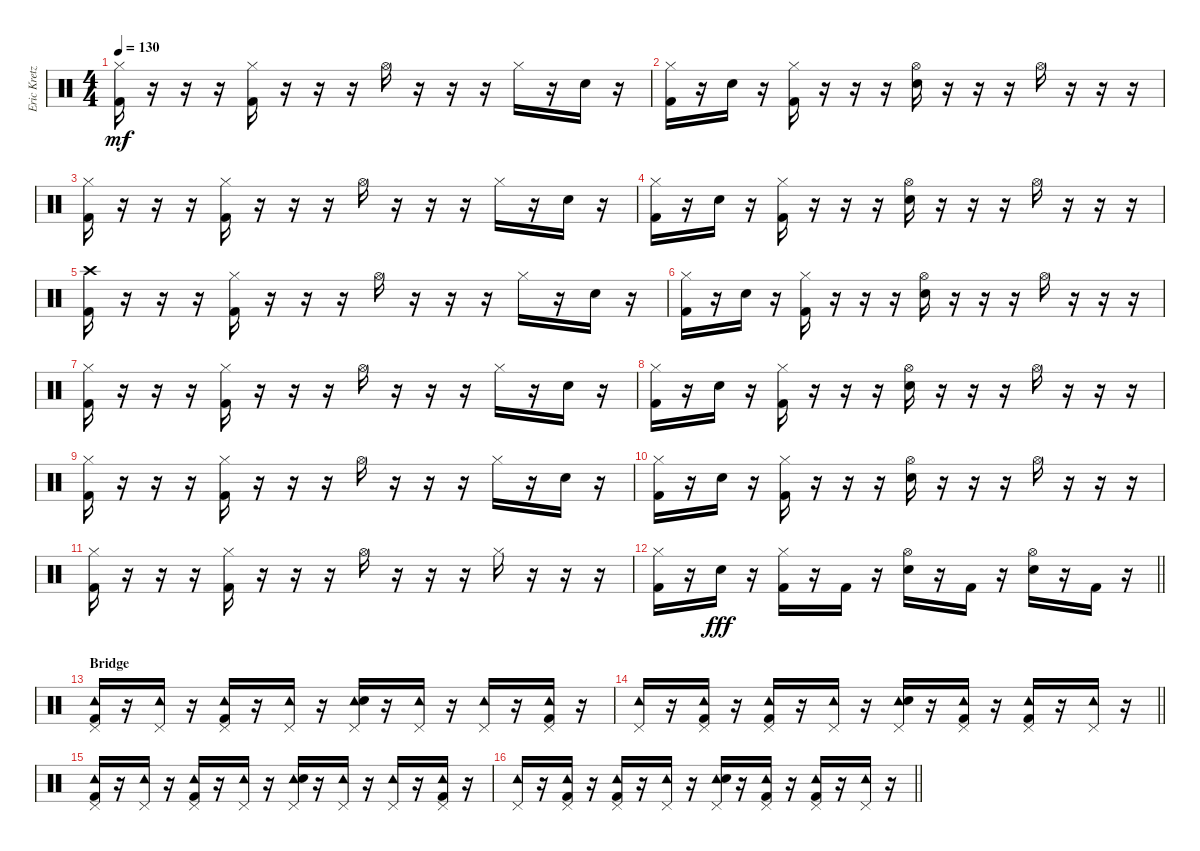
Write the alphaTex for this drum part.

\track ("Eric Kretz (Drums)" "Eric Kretz") {instrument percussion}
\staff {score}
\articulation defaults
\ts (4 4)
\tempo 130
\clef neutral
\ks c
("Hi-Hat (closed)" "Kick (hit) 2").16{dy mf} r.16 r.16 r.16 ("Hi-Hat (closed)" "Kick (hit) 2").16 r.16 r.16 r.16 "Hi-Hat (open)".16 r.16 r.16 r.16 "Hi-Hat (closed)".16 r.16 "Electric Snare (hit)".16 r.16 |
("Hi-Hat (closed)" "Kick (hit) 2").16 r.16 "Electric Snare (hit)".16 r.16 ("Hi-Hat (closed)" "Kick (hit) 2").16 r.16 r.16 r.16 ("Hi-Hat (open)" "Electric Snare (hit)").16 r.16 r.16 r.16 "Hi-Hat (open)".16 r.16 r.16 r.16 |
("Hi-Hat (closed)" "Kick (hit) 2").16 r.16 r.16 r.16 ("Hi-Hat (closed)" "Kick (hit) 2").16 r.16 r.16 r.16 "Hi-Hat (open)".16 r.16 r.16 r.16 "Hi-Hat (closed)".16 r.16 "Electric Snare (hit)".16 r.16 |
("Hi-Hat (closed)" "Kick (hit) 2").16 r.16 "Electric Snare (hit)".16 r.16 ("Hi-Hat (closed)" "Kick (hit) 2").16 r.16 r.16 r.16 ("Hi-Hat (open)" "Electric Snare (hit)").16 r.16 r.16 r.16 "Hi-Hat (open)".16 r.16 r.16 r.16 |
("Crash high (hit)" "Kick (hit) 2").16 r.16 r.16 r.16 ("Hi-Hat (closed)" "Kick (hit) 2").16 r.16 r.16 r.16 "Hi-Hat (open)".16 r.16 r.16 r.16 "Hi-Hat (closed)".16 r.16 "Electric Snare (hit)".16 r.16 |
("Hi-Hat (closed)" "Kick (hit) 2").16 r.16 "Electric Snare (hit)".16 r.16 ("Hi-Hat (closed)" "Kick (hit) 2").16 r.16 r.16 r.16 ("Hi-Hat (open)" "Electric Snare (hit)").16 r.16 r.16 r.16 "Hi-Hat (open)".16 r.16 r.16 r.16 |
("Hi-Hat (closed)" "Kick (hit) 2").16 r.16 r.16 r.16 ("Hi-Hat (closed)" "Kick (hit) 2").16 r.16 r.16 r.16 "Hi-Hat (open)".16 r.16 r.16 r.16 "Hi-Hat (closed)".16 r.16 "Electric Snare (hit)".16 r.16 |
("Hi-Hat (closed)" "Kick (hit) 2").16 r.16 "Electric Snare (hit)".16 r.16 ("Hi-Hat (closed)" "Kick (hit) 2").16 r.16 r.16 r.16 ("Hi-Hat (open)" "Electric Snare (hit)").16 r.16 r.16 r.16 "Hi-Hat (open)".16 r.16 r.16 r.16 |
("Hi-Hat (closed)" "Kick (hit) 2").16 r.16 r.16 r.16 ("Hi-Hat (closed)" "Kick (hit) 2").16 r.16 r.16 r.16 "Hi-Hat (open)".16 r.16 r.16 r.16 "Hi-Hat (closed)".16 r.16 "Electric Snare (hit)".16 r.16 |
("Hi-Hat (closed)" "Kick (hit) 2").16 r.16 "Electric Snare (hit)".16 r.16 ("Hi-Hat (closed)" "Kick (hit) 2").16 r.16 r.16 r.16 ("Hi-Hat (open)" "Electric Snare (hit)").16 r.16 r.16 r.16 "Hi-Hat (open)".16 r.16 r.16 r.16 |
("Hi-Hat (closed)" "Kick (hit) 2").16 r.16 r.16 r.16 ("Hi-Hat (closed)" "Kick (hit) 2").16 r.16 r.16 r.16 "Hi-Hat (open)".16 r.16 r.16 r.16 "Hi-Hat (closed)".16 r.16 r.16 r.16 |
\barLineRight lightlight
("Hi-Hat (closed)" "Kick (hit) 2").16 r.16 "Electric Snare (hit)".16{dy fff} r.16 ("Hi-Hat (closed)" "Kick (hit) 2").16 r.16 "Kick (hit) 2".16 r.16 ("Hi-Hat (open)" "Electric Snare (hit)").16 r.16 "Kick (hit) 2".16 r.16 ("Hi-Hat (open)" "Electric Snare (hit)").16 r.16 "Kick (hit) 2".16 r.16 |
\section ("" "Bridge")
("Pedal Hi-Hat (hit)" "Tambourine (hit)" "Kick (hit) 2").16 r.16 ("Pedal Hi-Hat (hit)" "Tambourine (hit)").16 r.16 ("Pedal Hi-Hat (hit)" "Tambourine (hit)" "Kick (hit) 2").16 r.16 ("Pedal Hi-Hat (hit)" "Tambourine (hit)").16 r.16 ("Pedal Hi-Hat (hit)" "Tambourine (hit)" "Electric Snare (hit)").16 r.16 ("Pedal Hi-Hat (hit)" "Tambourine (hit)").16 r.16 ("Pedal Hi-Hat (hit)" "Tambourine (hit)").16 r.16 ("Pedal Hi-Hat (hit)" "Tambourine (hit)" "Kick (hit) 2").16 r.16 |
\barLineRight lightlight
("Pedal Hi-Hat (hit)" "Tambourine (hit)").16 r.16 ("Pedal Hi-Hat (hit)" "Tambourine (hit)" "Kick (hit) 2").16 r.16 ("Pedal Hi-Hat (hit)" "Tambourine (hit)" "Kick (hit) 2").16 r.16 ("Pedal Hi-Hat (hit)" "Tambourine (hit)").16 r.16 ("Pedal Hi-Hat (hit)" "Tambourine (hit)" "Electric Snare (hit)").16 r.16 ("Pedal Hi-Hat (hit)" "Tambourine (hit)" "Kick (hit) 2").16 r.16 ("Pedal Hi-Hat (hit)" "Tambourine (hit)" "Kick (hit) 2").16 r.16 ("Pedal Hi-Hat (hit)" "Tambourine (hit)").16 r.16 |
("Pedal Hi-Hat (hit)" "Tambourine (hit)" "Kick (hit) 2").16 r.16 ("Pedal Hi-Hat (hit)" "Tambourine (hit)").16 r.16 ("Pedal Hi-Hat (hit)" "Tambourine (hit)" "Kick (hit) 2").16 r.16 ("Pedal Hi-Hat (hit)" "Tambourine (hit)").16 r.16 ("Pedal Hi-Hat (hit)" "Tambourine (hit)" "Electric Snare (hit)").16 r.16 ("Pedal Hi-Hat (hit)" "Tambourine (hit)").16 r.16 ("Pedal Hi-Hat (hit)" "Tambourine (hit)").16 r.16 ("Pedal Hi-Hat (hit)" "Tambourine (hit)" "Kick (hit) 2").16 r.16 |
\barLineRight lightlight
("Pedal Hi-Hat (hit)" "Tambourine (hit)").16 r.16 ("Pedal Hi-Hat (hit)" "Tambourine (hit)" "Kick (hit) 2").16 r.16 ("Pedal Hi-Hat (hit)" "Tambourine (hit)" "Kick (hit) 2").16 r.16 ("Pedal Hi-Hat (hit)" "Tambourine (hit)").16 r.16 ("Pedal Hi-Hat (hit)" "Tambourine (hit)" "Electric Snare (hit)").16 r.16 ("Pedal Hi-Hat (hit)" "Tambourine (hit)" "Kick (hit) 2").16 r.16 ("Pedal Hi-Hat (hit)" "Tambourine (hit)" "Kick (hit) 2").16 r.16 ("Pedal Hi-Hat (hit)" "Tambourine (hit)").16 r.16
